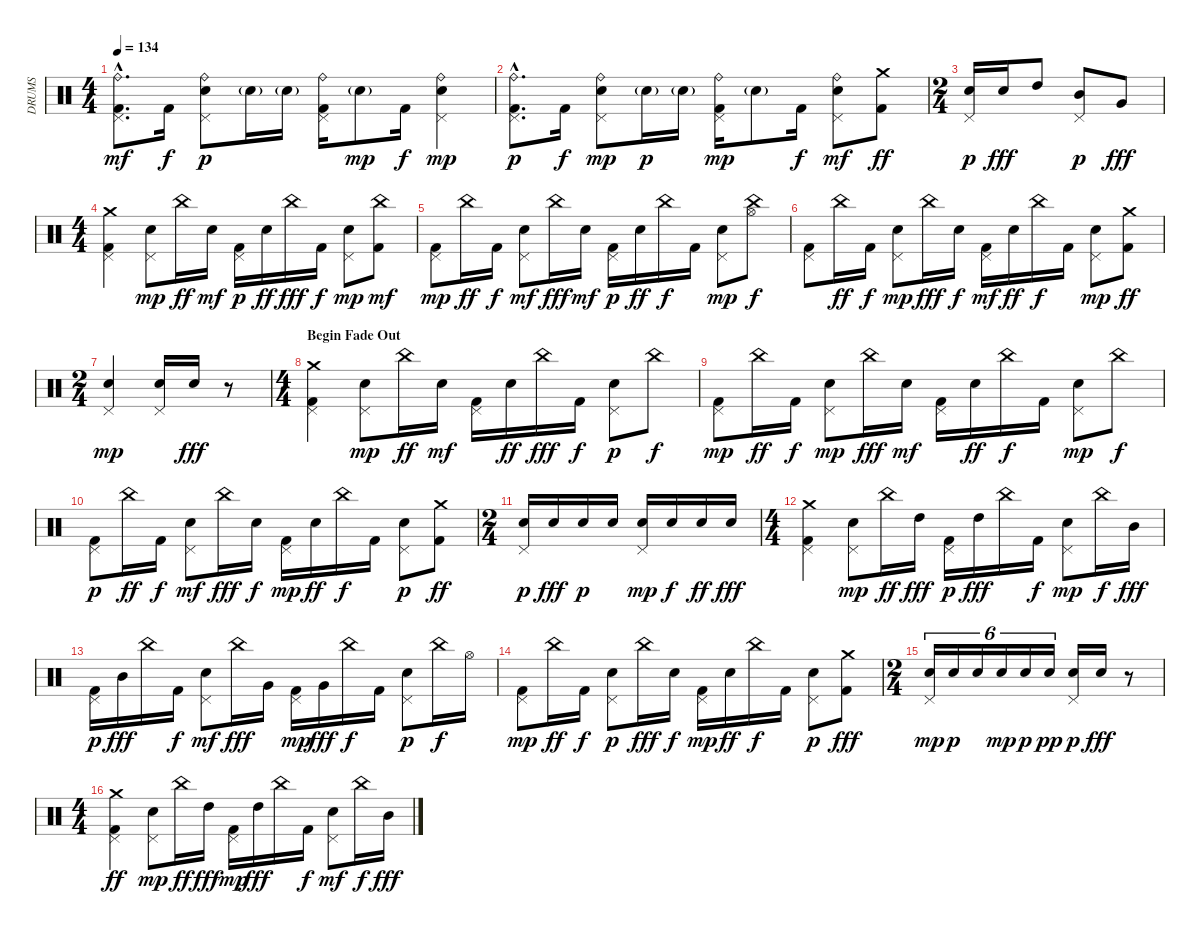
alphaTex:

\track ("DRUMS" "DRUMS") {instrument percussion}
\staff {score}
\articulation defaults
\ts (4 4)
\tempo 134
\clef neutral
\ks c
("Ride (bell)"{hac} "Pedal Hi-Hat (hit)"{hac} "Kick (hit) 2"{hac}).8{d dy mf} "Kick (hit) 2".16{dy f} ("Ride (bell)" "Electric Snare (hit)" "Pedal Hi-Hat (hit)").8{dy p} "Electric Snare (hit)"{g}.16 "Electric Snare (hit)"{g}.16 ("Ride (bell)" "Pedal Hi-Hat (hit)" "Kick (hit) 2").16 "Electric Snare (hit)"{g}.8{dy mp} "Kick (hit) 2".16{dy f} ("Ride (bell)" "Electric Snare (hit)" "Pedal Hi-Hat (hit)").4{dy mp} |
("Ride (bell)"{hac} "Pedal Hi-Hat (hit)"{hac} "Kick (hit) 2"{hac}).8{d dy p} "Kick (hit) 2".16{dy f} ("Ride (bell)" "Electric Snare (hit)" "Pedal Hi-Hat (hit)").8{dy mp} "Electric Snare (hit)"{g}.16{dy p} "Electric Snare (hit)"{g}.16 ("Ride (bell)" "Pedal Hi-Hat (hit)" "Kick (hit) 2").16{dy mp} "Electric Snare (hit)"{g}.8 "Kick (hit) 2".16{dy f} ("Ride (bell)" "Electric Snare (hit)" "Pedal Hi-Hat (hit)").8{dy mf} ("Crash medium (hit)" "Kick (hit) 2").8{dy ff} |
\ts (2 4)
("Electric Snare (hit)" "Pedal Hi-Hat (hit)").16{dy p} "Electric Snare (hit)".16{dy fff} "High Tom (hit)".8 ("Mid Tom (hit)" "Pedal Hi-Hat (hit)").8{dy p} "Very Low Tom (hit)".8{dy fff} |
\ts (4 4)
("Crash medium (hit)" "Pedal Hi-Hat (hit)" "Kick (hit) 2").4 ("Electric Snare (hit)" "Pedal Hi-Hat (hit)").8{dy mp} "China (hit)".16{dy ff} "Electric Snare (hit)".16{dy mf} ("Pedal Hi-Hat (hit)" "Kick (hit) 2").16{dy p} "Electric Snare (hit)".16{dy ff} "China (hit)".16{dy fff} "Kick (hit) 2".16{dy f} ("Electric Snare (hit)" "Pedal Hi-Hat (hit)").8{dy mp} ("China (hit)" "Kick (hit) 2").8{dy mf} |
("Pedal Hi-Hat (hit)" "Kick (hit) 2").8{dy mp} "China (hit)".16{dy ff} "Kick (hit) 2".16{dy f} ("Electric Snare (hit)" "Pedal Hi-Hat (hit)").8{dy mf} "China (hit)".16{dy fff} "Electric Snare (hit)".16{dy mf} ("Pedal Hi-Hat (hit)" "Kick (hit) 2").16{dy p} "Electric Snare (hit)".16{dy ff} "China (hit)".16{dy f} "Kick (hit) 2".16 ("Electric Snare (hit)" "Pedal Hi-Hat (hit)").8{dy mp} ("China (hit)" "Hi-Hat (open)").8{dy f} |
("Pedal Hi-Hat (hit)" "Kick (hit) 2").8 "China (hit)".16{dy ff} "Kick (hit) 2".16{dy f} ("Electric Snare (hit)" "Pedal Hi-Hat (hit)").8{dy mp} "China (hit)".16{dy fff} "Electric Snare (hit)".16{dy f} ("Pedal Hi-Hat (hit)" "Kick (hit) 2").16{dy mf} "Electric Snare (hit)".16{dy ff} "China (hit)".16{dy f} "Kick (hit) 2".16 ("Electric Snare (hit)" "Pedal Hi-Hat (hit)").8{dy mp} ("Crash medium (hit)" "Kick (hit) 2").8{dy ff} |
\ts (2 4)
("Electric Snare (hit)" "Pedal Hi-Hat (hit)").4{dy mp} ("Electric Snare (hit)" "Pedal Hi-Hat (hit)").16 "Electric Snare (hit)".16{dy fff} r.8 |
\ts (4 4)
\section ("" "Begin Fade Out")
("Crash medium (hit)" "Pedal Hi-Hat (hit)" "Kick (hit) 2").4{volume 13} ("Electric Snare (hit)" "Pedal Hi-Hat (hit)").8{dy mp} "China (hit)".16{dy ff} "Electric Snare (hit)".16{dy mf} ("Pedal Hi-Hat (hit)" "Kick (hit) 2").16 "Electric Snare (hit)".16{dy ff} "China (hit)".16{dy fff} "Kick (hit) 2".16{dy f} ("Electric Snare (hit)" "Pedal Hi-Hat (hit)").8{dy p} "China (hit)".8{dy f} |
("Pedal Hi-Hat (hit)" "Kick (hit) 2").8{dy mp} "China (hit)".16{dy ff} "Kick (hit) 2".16{dy f} ("Electric Snare (hit)" "Pedal Hi-Hat (hit)").8{dy mp} "China (hit)".16{dy fff} "Electric Snare (hit)".16{dy mf} ("Pedal Hi-Hat (hit)" "Kick (hit) 2").16 "Electric Snare (hit)".16{dy ff} "China (hit)".16{dy f} "Kick (hit) 2".16 ("Electric Snare (hit)" "Pedal Hi-Hat (hit)").8{dy mp} "China (hit)".8{dy f} |
("Pedal Hi-Hat (hit)" "Kick (hit) 2").8{dy p volume 11} "China (hit)".16{dy ff} "Kick (hit) 2".16{dy f} ("Electric Snare (hit)" "Pedal Hi-Hat (hit)").8{dy mf} "China (hit)".16{dy fff} "Electric Snare (hit)".16{dy f} ("Pedal Hi-Hat (hit)" "Kick (hit) 2").16{dy mp} "Electric Snare (hit)".16{dy ff} "China (hit)".16{dy f} "Kick (hit) 2".16 ("Electric Snare (hit)" "Pedal Hi-Hat (hit)").8{dy p} ("Crash medium (hit)" "Kick (hit) 2").8{dy ff} |
\ts (2 4)
("Electric Snare (hit)" "Pedal Hi-Hat (hit)").16{dy p} "Electric Snare (hit)".16{dy fff} "Electric Snare (hit)".16{dy p} "Electric Snare (hit)".16 ("Electric Snare (hit)" "Pedal Hi-Hat (hit)").16{dy mp} "Electric Snare (hit)".16{dy f} "Electric Snare (hit)".16{dy ff} "Electric Snare (hit)".16{dy fff} |
\ts (4 4)
("Crash medium (hit)" "Pedal Hi-Hat (hit)" "Kick (hit) 2").4{volume 10} ("Electric Snare (hit)" "Pedal Hi-Hat (hit)").8{dy mp} "China (hit)".16{dy ff} "High Tom (hit)".16{dy fff} ("Pedal Hi-Hat (hit)" "Kick (hit) 2").16{dy p} "High Tom (hit)".16{dy fff} "China (hit)".16 "Kick (hit) 2".16{dy f} ("Electric Snare (hit)" "Pedal Hi-Hat (hit)").8{dy mp} "China (hit)".16{dy f} "Mid Tom (hit)".16{dy fff} |
("Pedal Hi-Hat (hit)" "Kick (hit) 2").16{dy p} "Mid Tom (hit)".16{dy fff} "China (hit)".16 "Kick (hit) 2".16{dy f} ("Electric Snare (hit)" "Pedal Hi-Hat (hit)").8{dy mf} "China (hit)".16{dy fff} "Very Low Tom (hit)".16 ("Pedal Hi-Hat (hit)" "Kick (hit) 2").16{dy mp} "Very Low Tom (hit)".16{dy fff} "China (hit)".16{dy f} "Kick (hit) 2".16 ("Electric Snare (hit)" "Pedal Hi-Hat (hit)").8{dy p} "China (hit)".16{dy f} "Hi-Hat (open)".16 |
("Pedal Hi-Hat (hit)" "Kick (hit) 2").8{dy mp} "China (hit)".16{dy ff} "Kick (hit) 2".16{dy f} ("Electric Snare (hit)" "Pedal Hi-Hat (hit)").8{dy p} "China (hit)".16{dy fff} "Electric Snare (hit)".16{dy f} ("Pedal Hi-Hat (hit)" "Kick (hit) 2").16{dy mp} "Electric Snare (hit)".16{dy ff} "China (hit)".16{dy f} "Kick (hit) 2".16 ("Electric Snare (hit)" "Pedal Hi-Hat (hit)").8{dy p} ("Crash medium (hit)" "Kick (hit) 2").8{dy fff} |
\ts (2 4)
("Electric Snare (hit)" "Pedal Hi-Hat (hit)").16{tu (6 4) dy mp} "Electric Snare (hit)".16{tu (6 4) dy p} "Electric Snare (hit)".16{tu (6 4)} "Electric Snare (hit)".16{tu (6 4) dy mp} "Electric Snare (hit)".16{tu (6 4) dy p} "Electric Snare (hit)".16{tu (6 4) dy pp} ("Electric Snare (hit)" "Pedal Hi-Hat (hit)").16{dy p} "Electric Snare (hit)".16{dy fff} r.8 |
\ts (4 4)
("Crash medium (hit)" "Pedal Hi-Hat (hit)" "Kick (hit) 2").4{dy ff volume 9} ("Electric Snare (hit)" "Pedal Hi-Hat (hit)").8{dy mp} "China (hit)".16{dy ff} "High Tom (hit)".16{dy fff} ("Pedal Hi-Hat (hit)" "Kick (hit) 2").16{dy mp} "High Tom (hit)".16{dy fff} "China (hit)".16 "Kick (hit) 2".16{dy f} ("Electric Snare (hit)" "Pedal Hi-Hat (hit)").8{dy mf} "China (hit)".16{dy f} "Mid Tom (hit)".16{dy fff}
